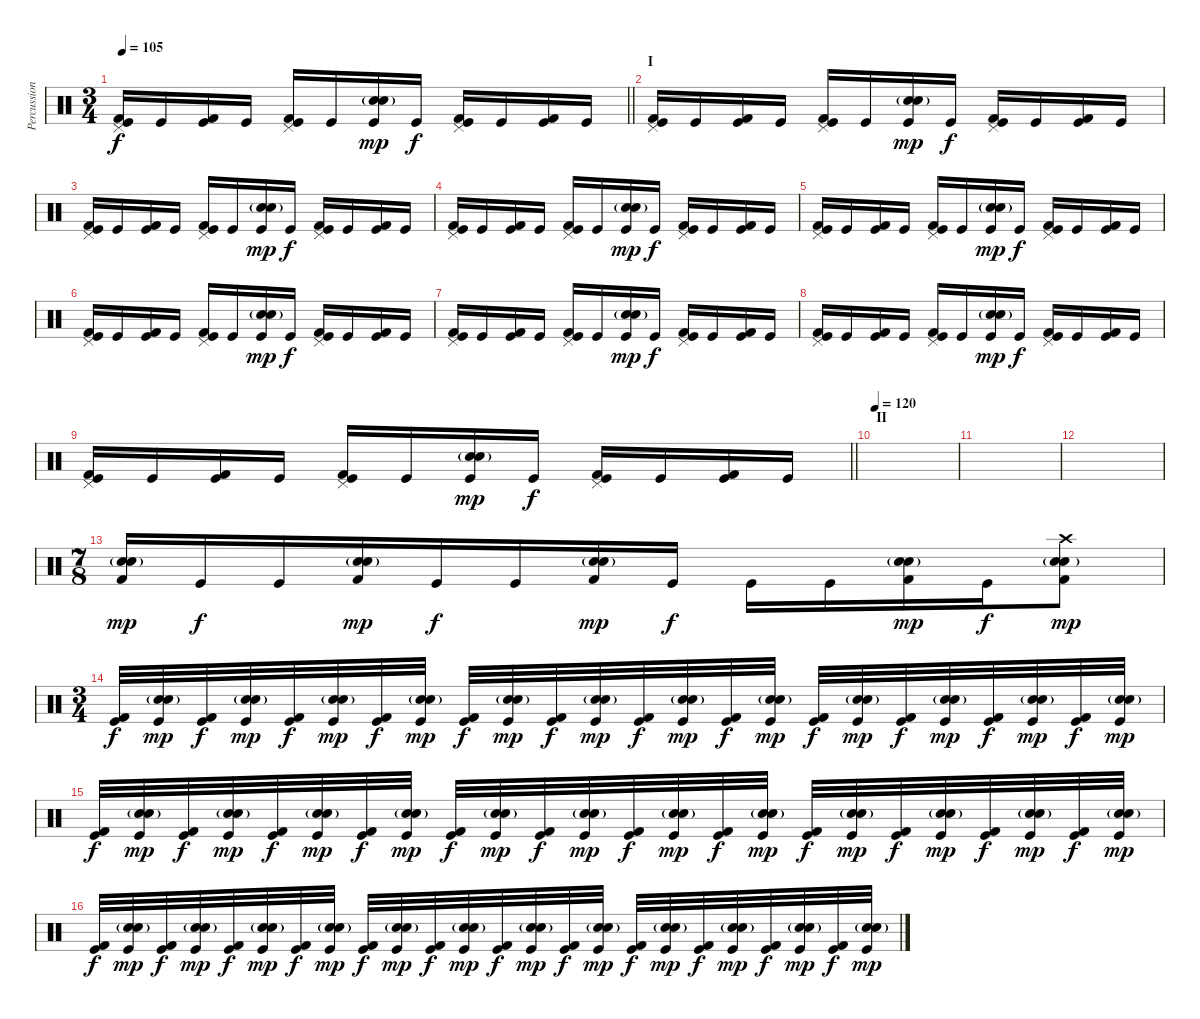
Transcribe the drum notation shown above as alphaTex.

\track ("Percussion" "Percussion") {instrument percussion}
\staff {score}
\articulation defaults
\ts (3 4)
\tempo 105
\clef neutral
\barLineRight lightlight
\ks c
("Kick (hit) 2" "Kick (hit)" "Pedal Hi-Hat (hit)").16{dy f} "Kick (hit)".16 ("Kick (hit) 2" "Kick (hit)").16 "Kick (hit)".16 ("Kick (hit) 2" "Kick (hit)" "Pedal Hi-Hat (hit)").16 "Kick (hit)".16 ("Electric Snare (hit)" "Snare (hit) 2"{g} "Kick (hit)").16{dy mp} "Kick (hit)".16{dy f} ("Kick (hit) 2" "Kick (hit)" "Pedal Hi-Hat (hit)").16 "Kick (hit)".16 ("Kick (hit) 2" "Kick (hit)").16 "Kick (hit)".16 |
\section ("" "I")
("Kick (hit) 2" "Kick (hit)" "Pedal Hi-Hat (hit)").16 "Kick (hit)".16 ("Kick (hit) 2" "Kick (hit)").16 "Kick (hit)".16 ("Kick (hit) 2" "Kick (hit)" "Pedal Hi-Hat (hit)").16 "Kick (hit)".16 ("Electric Snare (hit)" "Snare (hit) 2"{g} "Kick (hit)").16{dy mp} "Kick (hit)".16{dy f} ("Kick (hit) 2" "Kick (hit)" "Pedal Hi-Hat (hit)").16 "Kick (hit)".16 ("Kick (hit) 2" "Kick (hit)").16 "Kick (hit)".16 |
("Kick (hit) 2" "Kick (hit)" "Pedal Hi-Hat (hit)").16 "Kick (hit)".16 ("Kick (hit) 2" "Kick (hit)").16 "Kick (hit)".16 ("Kick (hit) 2" "Kick (hit)" "Pedal Hi-Hat (hit)").16 "Kick (hit)".16 ("Electric Snare (hit)" "Snare (hit) 2"{g} "Kick (hit)").16{dy mp} "Kick (hit)".16{dy f} ("Kick (hit) 2" "Kick (hit)" "Pedal Hi-Hat (hit)").16 "Kick (hit)".16 ("Kick (hit) 2" "Kick (hit)").16 "Kick (hit)".16 |
("Kick (hit) 2" "Kick (hit)" "Pedal Hi-Hat (hit)").16 "Kick (hit)".16 ("Kick (hit) 2" "Kick (hit)").16 "Kick (hit)".16 ("Kick (hit) 2" "Kick (hit)" "Pedal Hi-Hat (hit)").16 "Kick (hit)".16 ("Electric Snare (hit)" "Snare (hit) 2"{g} "Kick (hit)").16{dy mp} "Kick (hit)".16{dy f} ("Kick (hit) 2" "Kick (hit)" "Pedal Hi-Hat (hit)").16 "Kick (hit)".16 ("Kick (hit) 2" "Kick (hit)").16 "Kick (hit)".16 |
("Kick (hit) 2" "Kick (hit)" "Pedal Hi-Hat (hit)").16 "Kick (hit)".16 ("Kick (hit) 2" "Kick (hit)").16 "Kick (hit)".16 ("Kick (hit) 2" "Kick (hit)" "Pedal Hi-Hat (hit)").16 "Kick (hit)".16 ("Electric Snare (hit)" "Snare (hit) 2"{g} "Kick (hit)").16{dy mp} "Kick (hit)".16{dy f} ("Kick (hit) 2" "Kick (hit)" "Pedal Hi-Hat (hit)").16 "Kick (hit)".16 ("Kick (hit) 2" "Kick (hit)").16 "Kick (hit)".16 |
("Kick (hit) 2" "Kick (hit)" "Pedal Hi-Hat (hit)").16 "Kick (hit)".16 ("Kick (hit) 2" "Kick (hit)").16 "Kick (hit)".16 ("Kick (hit) 2" "Kick (hit)" "Pedal Hi-Hat (hit)").16 "Kick (hit)".16 ("Electric Snare (hit)" "Snare (hit) 2"{g} "Kick (hit)").16{dy mp} "Kick (hit)".16{dy f} ("Kick (hit) 2" "Kick (hit)" "Pedal Hi-Hat (hit)").16 "Kick (hit)".16 ("Kick (hit) 2" "Kick (hit)").16 "Kick (hit)".16 |
("Kick (hit) 2" "Kick (hit)" "Pedal Hi-Hat (hit)").16 "Kick (hit)".16 ("Kick (hit) 2" "Kick (hit)").16 "Kick (hit)".16 ("Kick (hit) 2" "Kick (hit)" "Pedal Hi-Hat (hit)").16 "Kick (hit)".16 ("Electric Snare (hit)" "Snare (hit) 2"{g} "Kick (hit)").16{dy mp} "Kick (hit)".16{dy f} ("Kick (hit) 2" "Kick (hit)" "Pedal Hi-Hat (hit)").16 "Kick (hit)".16 ("Kick (hit) 2" "Kick (hit)").16 "Kick (hit)".16 |
("Kick (hit) 2" "Kick (hit)" "Pedal Hi-Hat (hit)").16 "Kick (hit)".16 ("Kick (hit) 2" "Kick (hit)").16 "Kick (hit)".16 ("Kick (hit) 2" "Kick (hit)" "Pedal Hi-Hat (hit)").16 "Kick (hit)".16 ("Electric Snare (hit)" "Snare (hit) 2"{g} "Kick (hit)").16{dy mp} "Kick (hit)".16{dy f} ("Kick (hit) 2" "Kick (hit)" "Pedal Hi-Hat (hit)").16 "Kick (hit)".16 ("Kick (hit) 2" "Kick (hit)").16 "Kick (hit)".16 |
\barLineRight lightlight
("Kick (hit) 2" "Kick (hit)" "Pedal Hi-Hat (hit)").16 "Kick (hit)".16 ("Kick (hit) 2" "Kick (hit)").16 "Kick (hit)".16 ("Kick (hit) 2" "Kick (hit)" "Pedal Hi-Hat (hit)").16 "Kick (hit)".16 ("Electric Snare (hit)" "Snare (hit) 2"{g} "Kick (hit)").16{dy mp} "Kick (hit)".16{dy f} ("Kick (hit) 2" "Kick (hit)" "Pedal Hi-Hat (hit)").16 "Kick (hit)".16 ("Kick (hit) 2" "Kick (hit)").16 "Kick (hit)".16 |
\section ("" "II")
\tempo 120
|
|
|
\ts (7 8)
("Electric Snare (hit)" "Snare (hit) 2"{g} "Kick (hit) 2").16{dy mp} "Kick (hit)".16{dy f} "Kick (hit)".16 ("Electric Snare (hit)" "Snare (hit) 2"{g} "Kick (hit) 2").16{dy mp} "Kick (hit)".16{dy f} "Kick (hit)".16 ("Electric Snare (hit)" "Snare (hit) 2"{g} "Kick (hit) 2").16{dy mp} "Kick (hit)".16{dy f} "Kick (hit)".16 "Kick (hit)".16 ("Electric Snare (hit)" "Snare (hit) 2"{g} "Kick (hit) 2").16{dy mp} "Kick (hit)".16{dy f} ("Crash high (hit)" "Electric Snare (hit)" "Snare (hit) 2"{g} "Kick (hit) 2").8{dy mp} |
\ts (3 4)
("Kick (hit) 2" "Kick (hit)").32{dy f} ("Electric Snare (hit)" "Snare (hit) 2"{g} "Kick (hit)").32{dy mp} ("Kick (hit) 2" "Kick (hit)").32{dy f} ("Electric Snare (hit)" "Snare (hit) 2"{g} "Kick (hit)").32{dy mp} ("Kick (hit) 2" "Kick (hit)").32{dy f} ("Electric Snare (hit)" "Snare (hit) 2"{g} "Kick (hit)").32{dy mp} ("Kick (hit) 2" "Kick (hit)").32{dy f} ("Electric Snare (hit)" "Snare (hit) 2"{g} "Kick (hit)").32{dy mp} ("Kick (hit) 2" "Kick (hit)").32{dy f} ("Electric Snare (hit)" "Snare (hit) 2"{g} "Kick (hit)").32{dy mp} ("Kick (hit) 2" "Kick (hit)").32{dy f} ("Electric Snare (hit)" "Snare (hit) 2"{g} "Kick (hit)").32{dy mp} ("Kick (hit) 2" "Kick (hit)").32{dy f} ("Electric Snare (hit)" "Snare (hit) 2"{g} "Kick (hit)").32{dy mp} ("Kick (hit) 2" "Kick (hit)").32{dy f} ("Electric Snare (hit)" "Snare (hit) 2"{g} "Kick (hit)").32{dy mp} ("Kick (hit) 2" "Kick (hit)").32{dy f} ("Electric Snare (hit)" "Snare (hit) 2"{g} "Kick (hit)").32{dy mp} ("Kick (hit) 2" "Kick (hit)").32{dy f} ("Electric Snare (hit)" "Snare (hit) 2"{g} "Kick (hit)").32{dy mp} ("Kick (hit) 2" "Kick (hit)").32{dy f} ("Electric Snare (hit)" "Snare (hit) 2"{g} "Kick (hit)").32{dy mp} ("Kick (hit) 2" "Kick (hit)").32{dy f} ("Electric Snare (hit)" "Snare (hit) 2"{g} "Kick (hit)").32{dy mp} |
("Kick (hit) 2" "Kick (hit)").32{dy f} ("Electric Snare (hit)" "Snare (hit) 2"{g} "Kick (hit)").32{dy mp} ("Kick (hit) 2" "Kick (hit)").32{dy f} ("Electric Snare (hit)" "Snare (hit) 2"{g} "Kick (hit)").32{dy mp} ("Kick (hit) 2" "Kick (hit)").32{dy f} ("Electric Snare (hit)" "Snare (hit) 2"{g} "Kick (hit)").32{dy mp} ("Kick (hit) 2" "Kick (hit)").32{dy f} ("Electric Snare (hit)" "Snare (hit) 2"{g} "Kick (hit)").32{dy mp} ("Kick (hit) 2" "Kick (hit)").32{dy f} ("Electric Snare (hit)" "Snare (hit) 2"{g} "Kick (hit)").32{dy mp} ("Kick (hit) 2" "Kick (hit)").32{dy f} ("Electric Snare (hit)" "Snare (hit) 2"{g} "Kick (hit)").32{dy mp} ("Kick (hit) 2" "Kick (hit)").32{dy f} ("Electric Snare (hit)" "Snare (hit) 2"{g} "Kick (hit)").32{dy mp} ("Kick (hit) 2" "Kick (hit)").32{dy f} ("Electric Snare (hit)" "Snare (hit) 2"{g} "Kick (hit)").32{dy mp} ("Kick (hit) 2" "Kick (hit)").32{dy f} ("Electric Snare (hit)" "Snare (hit) 2"{g} "Kick (hit)").32{dy mp} ("Kick (hit) 2" "Kick (hit)").32{dy f} ("Electric Snare (hit)" "Snare (hit) 2"{g} "Kick (hit)").32{dy mp} ("Kick (hit) 2" "Kick (hit)").32{dy f} ("Electric Snare (hit)" "Snare (hit) 2"{g} "Kick (hit)").32{dy mp} ("Kick (hit) 2" "Kick (hit)").32{dy f} ("Electric Snare (hit)" "Snare (hit) 2"{g} "Kick (hit)").32{dy mp} |
("Kick (hit) 2" "Kick (hit)").32{dy f} ("Electric Snare (hit)" "Snare (hit) 2"{g} "Kick (hit)").32{dy mp} ("Kick (hit) 2" "Kick (hit)").32{dy f} ("Electric Snare (hit)" "Snare (hit) 2"{g} "Kick (hit)").32{dy mp} ("Kick (hit) 2" "Kick (hit)").32{dy f} ("Electric Snare (hit)" "Snare (hit) 2"{g} "Kick (hit)").32{dy mp} ("Kick (hit) 2" "Kick (hit)").32{dy f} ("Electric Snare (hit)" "Snare (hit) 2"{g} "Kick (hit)").32{dy mp} ("Kick (hit) 2" "Kick (hit)").32{dy f} ("Electric Snare (hit)" "Snare (hit) 2"{g} "Kick (hit)").32{dy mp} ("Kick (hit) 2" "Kick (hit)").32{dy f} ("Electric Snare (hit)" "Snare (hit) 2"{g} "Kick (hit)").32{dy mp} ("Kick (hit) 2" "Kick (hit)").32{dy f} ("Electric Snare (hit)" "Snare (hit) 2"{g} "Kick (hit)").32{dy mp} ("Kick (hit) 2" "Kick (hit)").32{dy f} ("Electric Snare (hit)" "Snare (hit) 2"{g} "Kick (hit)").32{dy mp} ("Kick (hit) 2" "Kick (hit)").32{dy f} ("Electric Snare (hit)" "Snare (hit) 2"{g} "Kick (hit)").32{dy mp} ("Kick (hit) 2" "Kick (hit)").32{dy f} ("Electric Snare (hit)" "Snare (hit) 2"{g} "Kick (hit)").32{dy mp} ("Kick (hit) 2" "Kick (hit)").32{dy f} ("Electric Snare (hit)" "Snare (hit) 2"{g} "Kick (hit)").32{dy mp} ("Kick (hit) 2" "Kick (hit)").32{dy f} ("Electric Snare (hit)" "Snare (hit) 2"{g} "Kick (hit)").32{dy mp}
